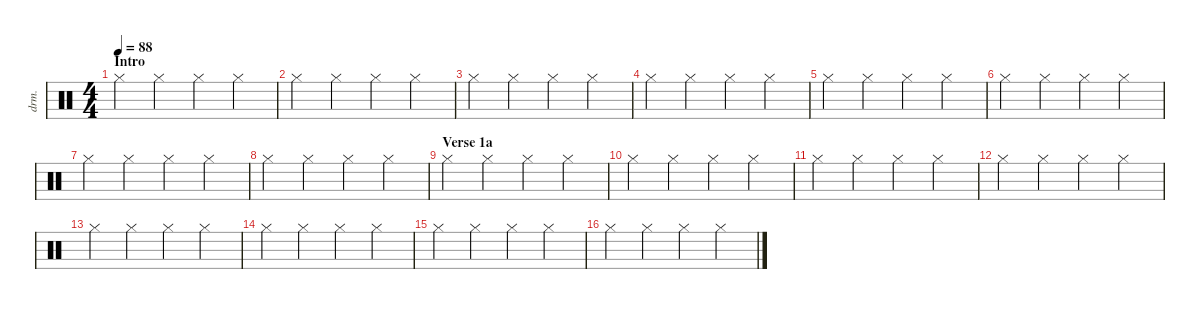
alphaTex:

\defaultSystemsLayout 4
\hideDynamics
\bracketExtendMode nobrackets
\otherSystemsTrackNameOrientation horizontal
\track ("Drumkit" "drm.") {instrument percussion}
\staff {score}
\articulation defaults
\ts (4 4)
\section ("" "Intro")
\tempo 88
\clef neutral
\ks c "Hi-Hat (closed)".4{dy mf beam Down} "Hi-Hat (closed)".4{beam Down} "Hi-Hat (closed)".4{beam Down} "Hi-Hat (closed)".4{beam Down}
|
"Hi-Hat (closed)".4{beam Down} "Hi-Hat (closed)".4{beam Down} "Hi-Hat (closed)".4{beam Down} "Hi-Hat (closed)".4{beam Down} |
"Hi-Hat (closed)".4{beam Down} "Hi-Hat (closed)".4{beam Down} "Hi-Hat (closed)".4{beam Down} "Hi-Hat (closed)".4{beam Down} |
"Hi-Hat (closed)".4{beam Down} "Hi-Hat (closed)".4{beam Down} "Hi-Hat (closed)".4{beam Down} "Hi-Hat (closed)".4{beam Down} |
"Hi-Hat (closed)".4{beam Down} "Hi-Hat (closed)".4{beam Down} "Hi-Hat (closed)".4{beam Down} "Hi-Hat (closed)".4{beam Down} |
"Hi-Hat (closed)".4{beam Down} "Hi-Hat (closed)".4{beam Down} "Hi-Hat (closed)".4{beam Down} "Hi-Hat (closed)".4{beam Down} |
"Hi-Hat (closed)".4{beam Down} "Hi-Hat (closed)".4{beam Down} "Hi-Hat (closed)".4{beam Down} "Hi-Hat (closed)".4{beam Down} |
"Hi-Hat (closed)".4{beam Down} "Hi-Hat (closed)".4{beam Down} "Hi-Hat (closed)".4{beam Down} "Hi-Hat (closed)".4{beam Down} |
\section ("" "Verse 1a")
"Hi-Hat (closed)".4{beam Down} "Hi-Hat (closed)".4{beam Down} "Hi-Hat (closed)".4{beam Down} "Hi-Hat (closed)".4{beam Down} |
"Hi-Hat (closed)".4{beam Down} "Hi-Hat (closed)".4{beam Down} "Hi-Hat (closed)".4{beam Down} "Hi-Hat (closed)".4{beam Down} |
"Hi-Hat (closed)".4{beam Down} "Hi-Hat (closed)".4{beam Down} "Hi-Hat (closed)".4{beam Down} "Hi-Hat (closed)".4{beam Down} |
"Hi-Hat (closed)".4{beam Down} "Hi-Hat (closed)".4{beam Down} "Hi-Hat (closed)".4{beam Down} "Hi-Hat (closed)".4{beam Down} |
"Hi-Hat (closed)".4{beam Down} "Hi-Hat (closed)".4{beam Down} "Hi-Hat (closed)".4{beam Down} "Hi-Hat (closed)".4{beam Down} |
"Hi-Hat (closed)".4{beam Down} "Hi-Hat (closed)".4{beam Down} "Hi-Hat (closed)".4{beam Down} "Hi-Hat (closed)".4{beam Down} |
"Hi-Hat (closed)".4{beam Down} "Hi-Hat (closed)".4{beam Down} "Hi-Hat (closed)".4{beam Down} "Hi-Hat (closed)".4{beam Down} |
"Hi-Hat (closed)".4{beam Down} "Hi-Hat (closed)".4{beam Down} "Hi-Hat (closed)".4{beam Down} "Hi-Hat (closed)".4{beam Down}
